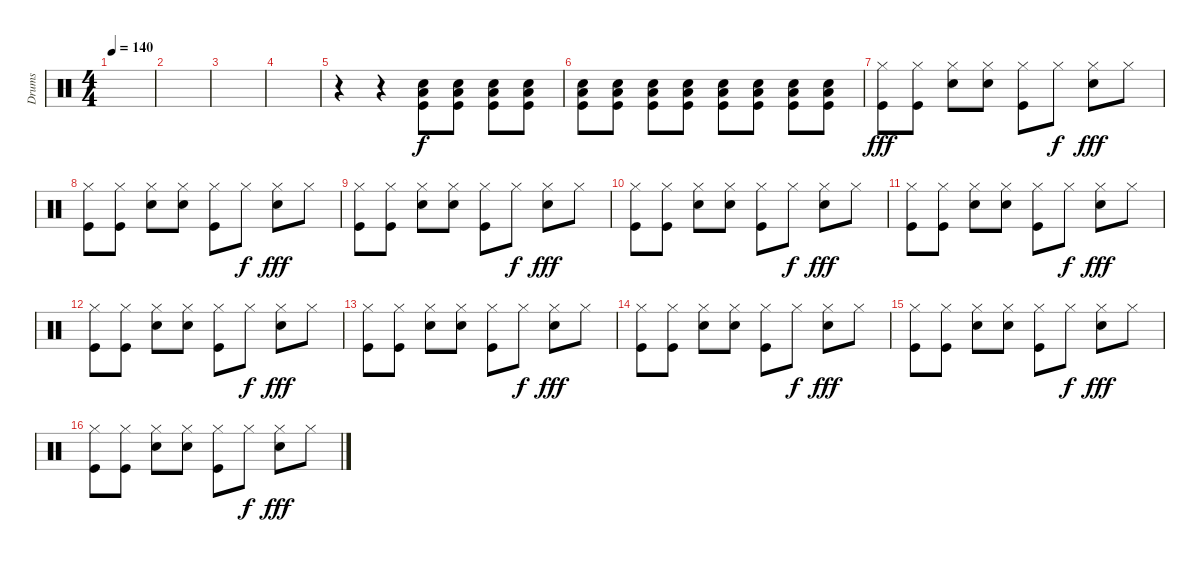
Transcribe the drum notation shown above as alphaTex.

\track ("Drums" "Drums") {instrument percussion}
\staff {score}
\articulation defaults
\ts (4 4)
\tempo 140
\clef neutral
\ks c
|
|
|
|
r.4 r.4 ("Low Floor Tom (hit)" "Kick (hit)" "Snare (hit) 2").8 ("Low Floor Tom (hit)" "Kick (hit)" "Snare (hit) 2").8 ("Low Floor Tom (hit)" "Kick (hit)" "Snare (hit) 2").8 ("Low Floor Tom (hit)" "Kick (hit)" "Snare (hit) 2").8 |
("Low Floor Tom (hit)" "Kick (hit)" "Snare (hit) 2").8 ("Low Floor Tom (hit)" "Kick (hit)" "Snare (hit) 2").8 ("Low Floor Tom (hit)" "Kick (hit)" "Snare (hit) 2").8 ("Low Floor Tom (hit)" "Kick (hit)" "Snare (hit) 2").8 ("Low Floor Tom (hit)" "Kick (hit)" "Snare (hit) 2").8 ("Low Floor Tom (hit)" "Kick (hit)" "Snare (hit) 2").8 ("Low Floor Tom (hit)" "Kick (hit)" "Snare (hit) 2").8 ("Low Floor Tom (hit)" "Kick (hit)" "Snare (hit) 2").8 |
("Kick (hit)" "Hi-Hat (closed)").8{dy fff} ("Kick (hit)" "Hi-Hat (closed)").8 ("Snare (hit) 2" "Hi-Hat (closed)").8 ("Snare (hit) 2" "Hi-Hat (closed)").8 ("Kick (hit)" "Hi-Hat (closed)").8 "Hi-Hat (closed)".8{dy f} ("Snare (hit) 2" "Hi-Hat (closed)").8{dy fff} "Hi-Hat (closed)".8 |
("Kick (hit)" "Hi-Hat (closed)").8 ("Kick (hit)" "Hi-Hat (closed)").8 ("Snare (hit) 2" "Hi-Hat (closed)").8 ("Snare (hit) 2" "Hi-Hat (closed)").8 ("Kick (hit)" "Hi-Hat (closed)").8 "Hi-Hat (closed)".8{dy f} ("Snare (hit) 2" "Hi-Hat (closed)").8{dy fff} "Hi-Hat (closed)".8 |
("Kick (hit)" "Hi-Hat (closed)").8 ("Kick (hit)" "Hi-Hat (closed)").8 ("Snare (hit) 2" "Hi-Hat (closed)").8 ("Snare (hit) 2" "Hi-Hat (closed)").8 ("Kick (hit)" "Hi-Hat (closed)").8 "Hi-Hat (closed)".8{dy f} ("Snare (hit) 2" "Hi-Hat (closed)").8{dy fff} "Hi-Hat (closed)".8 |
("Kick (hit)" "Hi-Hat (closed)").8 ("Kick (hit)" "Hi-Hat (closed)").8 ("Snare (hit) 2" "Hi-Hat (closed)").8 ("Snare (hit) 2" "Hi-Hat (closed)").8 ("Kick (hit)" "Hi-Hat (closed)").8 "Hi-Hat (closed)".8{dy f} ("Snare (hit) 2" "Hi-Hat (closed)").8{dy fff} "Hi-Hat (closed)".8 |
("Kick (hit)" "Hi-Hat (closed)").8 ("Kick (hit)" "Hi-Hat (closed)").8 ("Snare (hit) 2" "Hi-Hat (closed)").8 ("Snare (hit) 2" "Hi-Hat (closed)").8 ("Kick (hit)" "Hi-Hat (closed)").8 "Hi-Hat (closed)".8{dy f} ("Snare (hit) 2" "Hi-Hat (closed)").8{dy fff} "Hi-Hat (closed)".8 |
("Kick (hit)" "Hi-Hat (closed)").8 ("Kick (hit)" "Hi-Hat (closed)").8 ("Snare (hit) 2" "Hi-Hat (closed)").8 ("Snare (hit) 2" "Hi-Hat (closed)").8 ("Kick (hit)" "Hi-Hat (closed)").8 "Hi-Hat (closed)".8{dy f} ("Snare (hit) 2" "Hi-Hat (closed)").8{dy fff} "Hi-Hat (closed)".8 |
("Kick (hit)" "Hi-Hat (closed)").8 ("Kick (hit)" "Hi-Hat (closed)").8 ("Snare (hit) 2" "Hi-Hat (closed)").8 ("Snare (hit) 2" "Hi-Hat (closed)").8 ("Kick (hit)" "Hi-Hat (closed)").8 "Hi-Hat (closed)".8{dy f} ("Snare (hit) 2" "Hi-Hat (closed)").8{dy fff} "Hi-Hat (closed)".8 |
("Kick (hit)" "Hi-Hat (closed)").8 ("Kick (hit)" "Hi-Hat (closed)").8 ("Snare (hit) 2" "Hi-Hat (closed)").8 ("Snare (hit) 2" "Hi-Hat (closed)").8 ("Kick (hit)" "Hi-Hat (closed)").8 "Hi-Hat (closed)".8{dy f} ("Snare (hit) 2" "Hi-Hat (closed)").8{dy fff} "Hi-Hat (closed)".8 |
("Kick (hit)" "Hi-Hat (closed)").8 ("Kick (hit)" "Hi-Hat (closed)").8 ("Snare (hit) 2" "Hi-Hat (closed)").8 ("Snare (hit) 2" "Hi-Hat (closed)").8 ("Kick (hit)" "Hi-Hat (closed)").8 "Hi-Hat (closed)".8{dy f} ("Snare (hit) 2" "Hi-Hat (closed)").8{dy fff} "Hi-Hat (closed)".8 |
("Kick (hit)" "Hi-Hat (closed)").8 ("Kick (hit)" "Hi-Hat (closed)").8 ("Snare (hit) 2" "Hi-Hat (closed)").8 ("Snare (hit) 2" "Hi-Hat (closed)").8 ("Kick (hit)" "Hi-Hat (closed)").8 "Hi-Hat (closed)".8{dy f} ("Snare (hit) 2" "Hi-Hat (closed)").8{dy fff} "Hi-Hat (closed)".8
